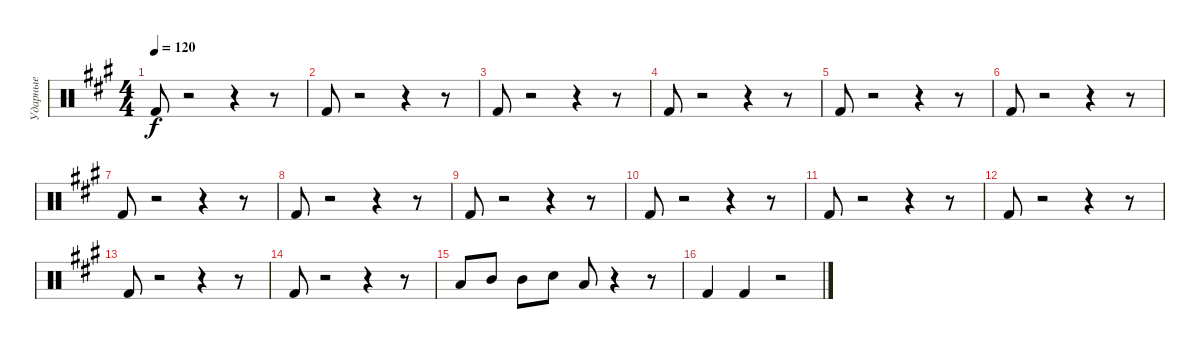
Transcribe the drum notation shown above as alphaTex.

\track ("Ударные" "Ударные") {instrument percussion}
\staff {score}
\articulation defaults
\ts (4 4)
\tempo 120
\clef neutral
\ks a "Kick (hit) 2".8{dy f}
r.2 r.4 r.8 |
"Kick (hit) 2".8 r.2 r.4 r.8 |
"Kick (hit) 2".8 r.2 r.4 r.8 |
"Kick (hit) 2".8 r.2 r.4 r.8 |
"Kick (hit) 2".8 r.2 r.4 r.8 |
"Kick (hit) 2".8 r.2 r.4 r.8 |
"Kick (hit) 2".8 r.2 r.4 r.8 |
"Kick (hit) 2".8 r.2 r.4 r.8 |
"Kick (hit) 2".8 r.2 r.4 r.8 |
"Kick (hit) 2".8 r.2 r.4 r.8 |
"Kick (hit) 2".8 r.2 r.4 r.8 |
"Kick (hit) 2".8 r.2 r.4 r.8 |
"Kick (hit) 2".8 r.2 r.4 r.8 |
"Kick (hit) 2".8 r.2 r.4 r.8 |
"Low Floor Tom (hit)".8 "Mid Tom (hit)".8 "Mid Tom (hit)".8 "Snare (hit) 2".8 "Low Floor Tom (hit)".8 r.4 r.8 |
"Kick (hit) 2".4 "Kick (hit) 2".4 r.2
